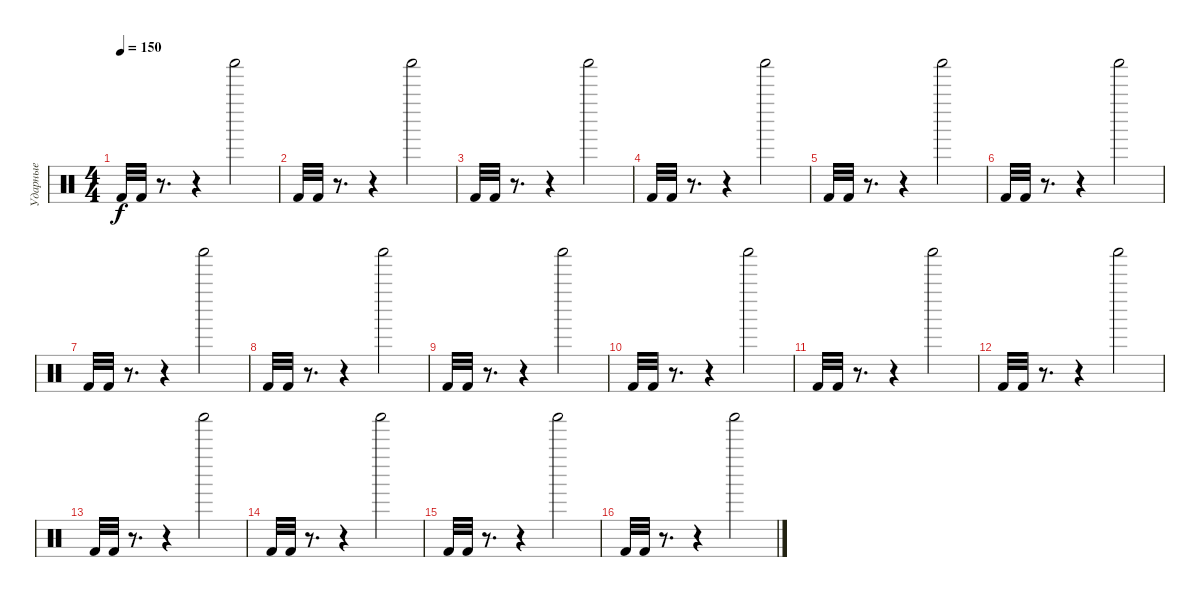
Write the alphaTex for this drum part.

\track ("Ударные" "Ударные") {instrument percussion}
\staff {score}
\articulation defaults
\ts (4 4)
\tempo 150
\clef neutral
\ks c "Kick (hit) 2".32{dy f} "Kick (hit) 2".32
r.8{d} r.4 "Shaker (hit)".2 |
"Kick (hit) 2".32 "Kick (hit) 2".32 r.8{d} r.4 "Shaker (hit)".2 |
"Kick (hit) 2".32 "Kick (hit) 2".32 r.8{d} r.4 "Shaker (hit)".2 |
"Kick (hit) 2".32 "Kick (hit) 2".32 r.8{d} r.4 "Shaker (hit)".2 |
"Kick (hit) 2".32 "Kick (hit) 2".32 r.8{d} r.4 "Shaker (hit)".2 |
"Kick (hit) 2".32 "Kick (hit) 2".32 r.8{d} r.4 "Shaker (hit)".2 |
"Kick (hit) 2".32 "Kick (hit) 2".32 r.8{d} r.4 "Shaker (hit)".2 |
"Kick (hit) 2".32 "Kick (hit) 2".32 r.8{d} r.4 "Shaker (hit)".2 |
"Kick (hit) 2".32 "Kick (hit) 2".32 r.8{d} r.4 "Shaker (hit)".2 |
"Kick (hit) 2".32 "Kick (hit) 2".32 r.8{d} r.4 "Shaker (hit)".2 |
"Kick (hit) 2".32 "Kick (hit) 2".32 r.8{d} r.4 "Shaker (hit)".2 |
"Kick (hit) 2".32 "Kick (hit) 2".32 r.8{d} r.4 "Shaker (hit)".2 |
"Kick (hit) 2".32 "Kick (hit) 2".32 r.8{d} r.4 "Shaker (hit)".2 |
"Kick (hit) 2".32 "Kick (hit) 2".32 r.8{d} r.4 "Shaker (hit)".2 |
"Kick (hit) 2".32 "Kick (hit) 2".32 r.8{d} r.4 "Shaker (hit)".2 |
"Kick (hit) 2".32 "Kick (hit) 2".32 r.8{d} r.4 "Shaker (hit)".2
